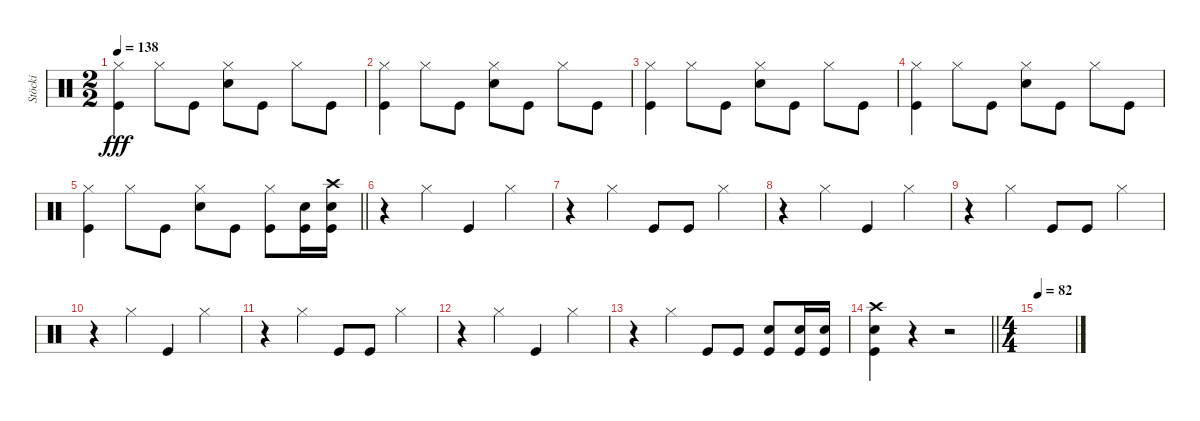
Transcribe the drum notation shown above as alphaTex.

\track ("Stöcki" "Stöcki") {instrument percussion}
\staff {score}
\articulation defaults
\ts (2 2)
\tempo 138
\clef neutral
\ks c
("Hi-Hat (closed)" "Kick (hit)").4{dy fff} "Hi-Hat (closed)".8 "Kick (hit)".8 ("Hi-Hat (closed)" "Snare (hit) 2").8 "Kick (hit)".8 "Hi-Hat (closed)".8 "Kick (hit)".8 |
("Hi-Hat (closed)" "Kick (hit)").4 "Hi-Hat (closed)".8 "Kick (hit)".8 ("Hi-Hat (closed)" "Snare (hit) 2").8 "Kick (hit)".8 "Hi-Hat (closed)".8 "Kick (hit)".8 |
("Hi-Hat (closed)" "Kick (hit)").4 "Hi-Hat (closed)".8 "Kick (hit)".8 ("Hi-Hat (closed)" "Snare (hit) 2").8 "Kick (hit)".8 "Hi-Hat (closed)".8 "Kick (hit)".8 |
("Hi-Hat (closed)" "Kick (hit)").4 "Hi-Hat (closed)".8 "Kick (hit)".8 ("Hi-Hat (closed)" "Snare (hit) 2").8 "Kick (hit)".8 "Hi-Hat (closed)".8 "Kick (hit)".8 |
\barLineRight lightlight
("Hi-Hat (closed)" "Kick (hit)").4 "Hi-Hat (closed)".8 "Kick (hit)".8 ("Hi-Hat (closed)" "Snare (hit) 2").8 "Kick (hit)".8 ("Hi-Hat (closed)" "Kick (hit)").8 ("Kick (hit)" "Snare (hit) 2").16 ("Kick (hit)" "Snare (hit) 2" "Crash high (hit)").16 |
r.4 "Hi-Hat (closed)".4 "Kick (hit)".4 "Hi-Hat (closed)".4 |
r.4 "Hi-Hat (closed)".4 "Kick (hit)".8 "Kick (hit)".8 "Hi-Hat (closed)".4 |
r.4 "Hi-Hat (closed)".4 "Kick (hit)".4 "Hi-Hat (closed)".4 |
r.4 "Hi-Hat (closed)".4 "Kick (hit)".8 "Kick (hit)".8 "Hi-Hat (closed)".4 |
r.4 "Hi-Hat (closed)".4 "Kick (hit)".4 "Hi-Hat (closed)".4 |
r.4 "Hi-Hat (closed)".4 "Kick (hit)".8 "Kick (hit)".8 "Hi-Hat (closed)".4 |
r.4 "Hi-Hat (closed)".4 "Kick (hit)".4 "Hi-Hat (closed)".4 |
r.4 "Hi-Hat (closed)".4 "Kick (hit)".8 "Kick (hit)".8 ("Snare (hit) 2" "Kick (hit)").8 ("Snare (hit) 2" "Kick (hit)").16 ("Snare (hit) 2" "Kick (hit)").16 |
\barLineRight lightlight
("Crash high (hit)" "Snare (hit) 2" "Kick (hit)").4 r.4 r.2 |
\ts (4 4)
\tempo 82
